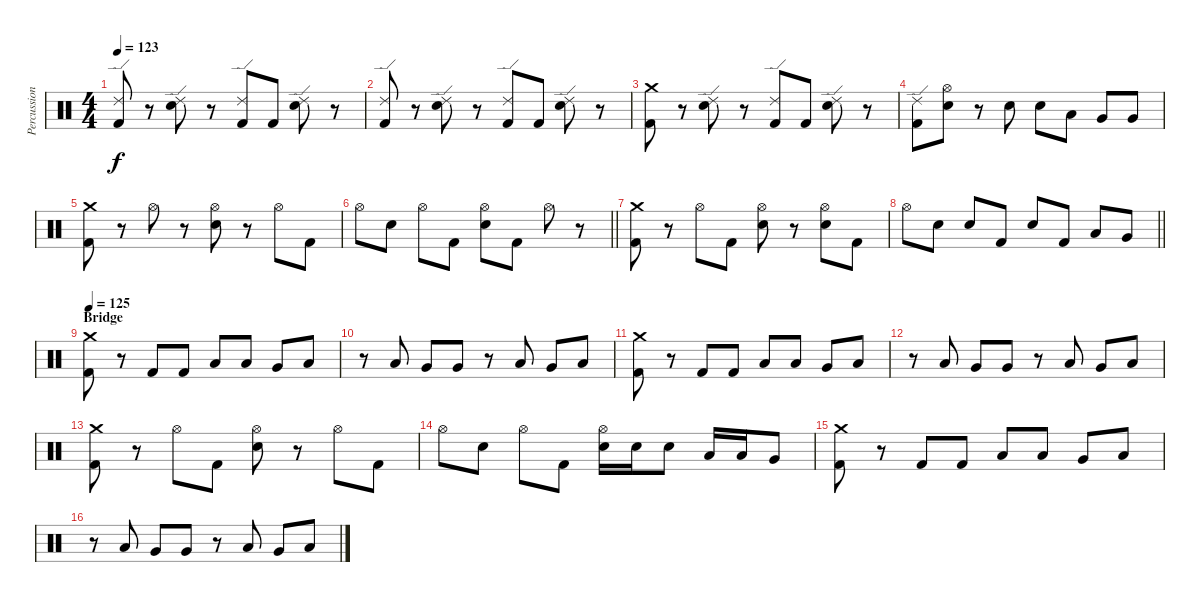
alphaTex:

\track ("Percussion" "Percussion") {instrument percussion}
\staff {score}
\articulation defaults
\ts (4 4)
\tempo 123
\clef neutral
\ks c
("Ride (edge) 2" "Kick (hit) 2").8{dy f} r.8 ("Ride (edge) 2" "Electric Snare (hit)").8 r.8 ("Ride (edge) 2" "Kick (hit) 2").8 "Kick (hit) 2".8 ("Ride (edge) 2" "Electric Snare (hit)").8 r.8 |
("Ride (edge) 2" "Kick (hit) 2").8 r.8 ("Ride (edge) 2" "Electric Snare (hit)").8 r.8 ("Ride (edge) 2" "Kick (hit) 2").8 "Kick (hit) 2".8 ("Ride (edge) 2" "Electric Snare (hit)").8 r.8 |
("Crash medium (hit)" "Kick (hit) 2").8 r.8 ("Ride (edge) 2" "Electric Snare (hit)").8 r.8 ("Ride (edge) 2" "Kick (hit) 2").8 "Kick (hit) 2".8 ("Ride (edge) 2" "Electric Snare (hit)").8 r.8 |
("Ride (edge) 2" "Kick (hit) 2").8 ("Hi-Hat (open)" "Electric Snare (hit)").8 r.8 "Electric Snare (hit)".8 "Electric Snare (hit)".8 "Low Tom (hit)".8 "Very Low Tom (hit)".8 "Very Low Tom (hit)".8 |
("Crash medium (hit)" "Kick (hit) 2").8 r.8 "Hi-Hat (open)".8 r.8 ("Hi-Hat (open)" "Electric Snare (hit)").8 r.8 "Hi-Hat (open)".8 "Kick (hit) 2".8 |
\barLineRight lightlight "Hi-Hat (open)".8 "Electric Snare (hit)".8 "Hi-Hat (open)".8 "Kick (hit) 2".8
("Hi-Hat (open)" "Electric Snare (hit)").8 "Kick (hit) 2".8 "Hi-Hat (open)".8 r.8 |
("Crash medium (hit)" "Kick (hit) 2").8 r.8 "Hi-Hat (open)".8 "Kick (hit) 2".8 ("Hi-Hat (open)" "Electric Snare (hit)").8 r.8 ("Hi-Hat (open)" "Electric Snare (hit)").8 "Kick (hit) 2".8 |
\barLineRight lightlight "Hi-Hat (open)".8 "Electric Snare (hit)".8 "Electric Snare (hit)".8 "Kick (hit) 2".8 "Electric Snare (hit)".8 "Kick (hit) 2".8 "Low Tom (hit)".8 "Very Low Tom (hit)".8
|
\section ("" "Bridge")
\tempo 125
("Crash medium (hit)" "Kick (hit) 2").8 r.8 "Kick (hit) 2".8 "Kick (hit) 2".8 "Low Tom (hit)".8 "Low Tom (hit)".8 "Very Low Tom (hit)".8 "Low Tom (hit)".8 |
r.8 "Low Tom (hit)".8 "Very Low Tom (hit)".8 "Very Low Tom (hit)".8 r.8 "Low Tom (hit)".8 "Very Low Tom (hit)".8 "Low Tom (hit)".8 |
("Crash medium (hit)" "Kick (hit) 2").8 r.8 "Kick (hit) 2".8 "Kick (hit) 2".8 "Low Tom (hit)".8 "Low Tom (hit)".8 "Very Low Tom (hit)".8 "Low Tom (hit)".8 |
r.8 "Low Tom (hit)".8 "Very Low Tom (hit)".8 "Very Low Tom (hit)".8 r.8 "Low Tom (hit)".8 "Very Low Tom (hit)".8 "Low Tom (hit)".8 |
("Kick (hit) 2" "Crash medium (hit)").8 r.8 "Hi-Hat (open)".8 "Kick (hit) 2".8 ("Hi-Hat (open)" "Electric Snare (hit)").8 r.8 "Hi-Hat (open)".8 "Kick (hit) 2".8 |
"Hi-Hat (open)".8 "Electric Snare (hit)".8 "Hi-Hat (open)".8 "Kick (hit) 2".8 ("Hi-Hat (open)" "Electric Snare (hit)").16 "Electric Snare (hit)".16 "Electric Snare (hit)".8 "Low Tom (hit)".16 "Low Tom (hit)".16 "Very Low Tom (hit)".8 |
("Crash medium (hit)" "Kick (hit) 2").8 r.8 "Kick (hit) 2".8 "Kick (hit) 2".8 "Low Tom (hit)".8 "Low Tom (hit)".8 "Very Low Tom (hit)".8 "Low Tom (hit)".8 |
r.8 "Low Tom (hit)".8 "Very Low Tom (hit)".8 "Very Low Tom (hit)".8 r.8 "Low Tom (hit)".8 "Very Low Tom (hit)".8 "Low Tom (hit)".8
